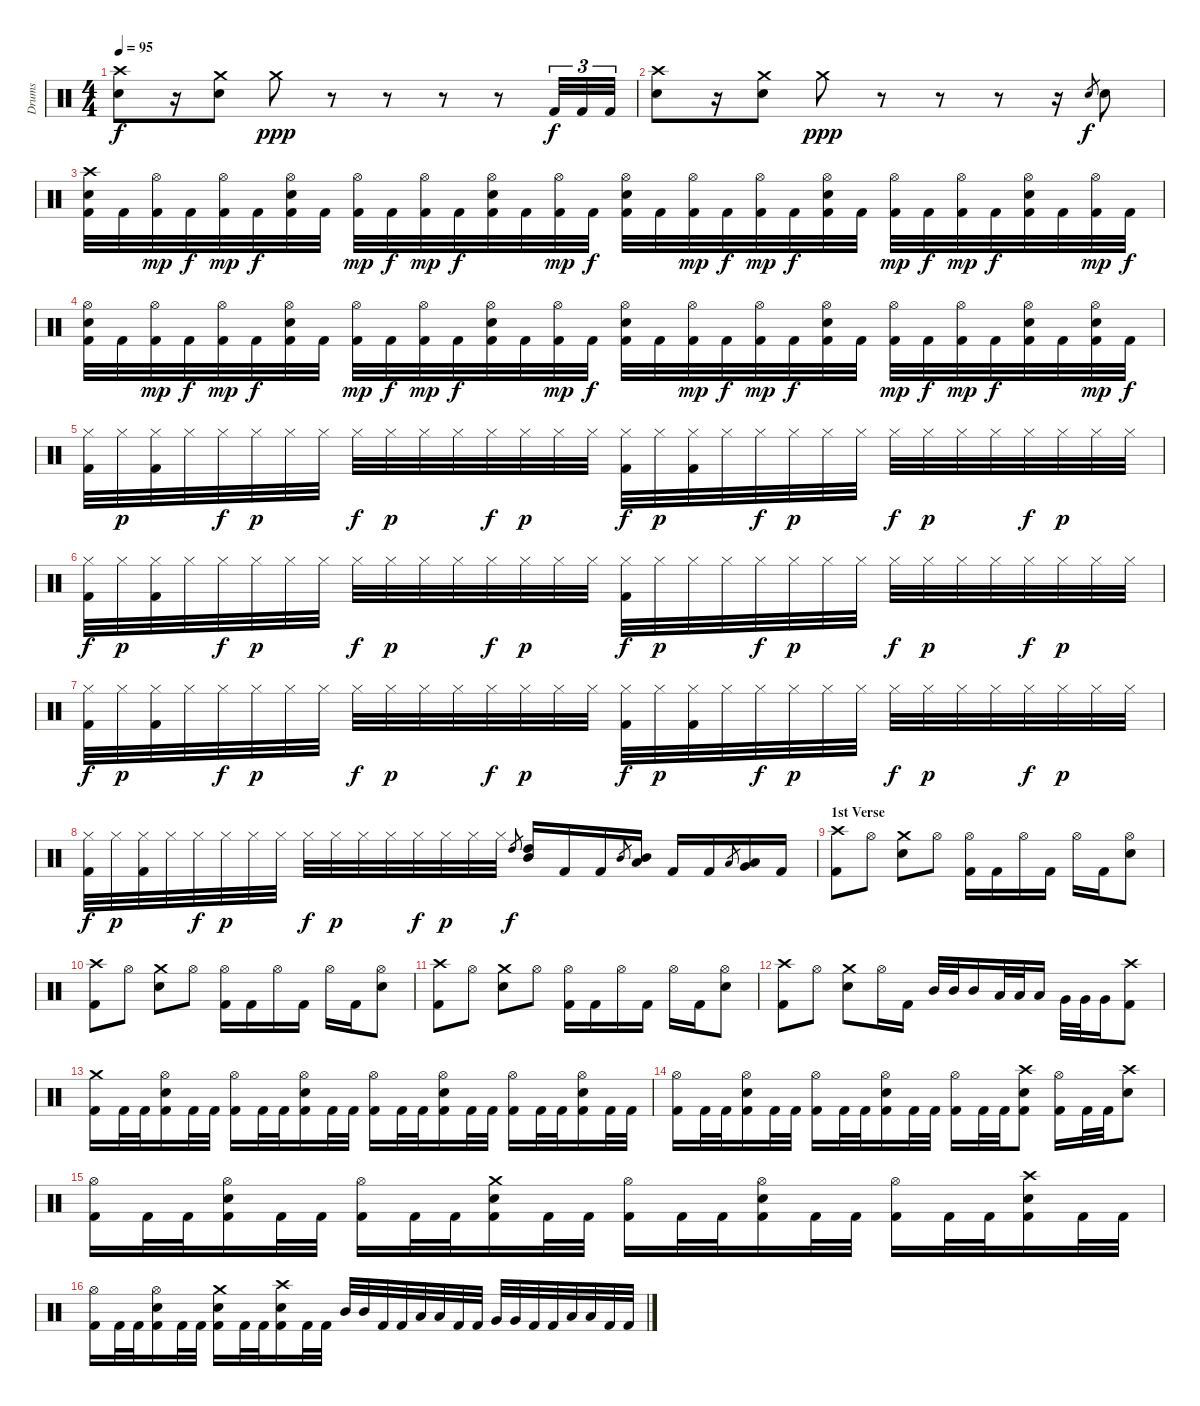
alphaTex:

\track ("Drums" "Drums") {instrument percussion}
\staff {score}
\articulation defaults
\ts (4 4)
\tempo 95
\clef neutral
\ks c
("Crash high (hit)" "Snare (hit) 2").8{dy f} r.16 ("Crash medium (hit)" "Snare (hit) 2").8 "Crash medium (hit)".8{dy ppp} r.8 r.8 r.8 r.8 "Kick (hit) 2".32{tu (3 2) dy f} "Kick (hit) 2".32{tu (3 2)} "Kick (hit) 2".32{tu (3 2)} |
("Crash high (hit)" "Snare (hit) 2").8 r.16 ("Crash medium (hit)" "Snare (hit) 2").8 "Crash medium (hit)".8{dy ppp} r.8 r.8 r.8 r.16 "Snare (hit) 2".8{gr dy f} "Snare (hit) 2".8 |
("Crash high (hit)" "Snare (hit) 2" "Kick (hit) 2").32 "Kick (hit) 2".32 ("Hi-Hat (open)" "Kick (hit) 2").32{dy mp} "Kick (hit) 2".32{dy f} ("Hi-Hat (open)" "Kick (hit) 2").32{dy mp} "Kick (hit) 2".32{dy f} ("Hi-Hat (open)" "Snare (hit) 2" "Kick (hit) 2").32 "Kick (hit) 2".32 ("Hi-Hat (open)" "Kick (hit) 2").32{dy mp} "Kick (hit) 2".32{dy f} ("Hi-Hat (open)" "Kick (hit) 2").32{dy mp} "Kick (hit) 2".32{dy f} ("Hi-Hat (open)" "Snare (hit) 2" "Kick (hit) 2").32 "Kick (hit) 2".32 ("Hi-Hat (open)" "Kick (hit) 2").32{dy mp} "Kick (hit) 2".32{dy f} ("Hi-Hat (open)" "Snare (hit) 2" "Kick (hit) 2").32 "Kick (hit) 2".32 ("Hi-Hat (open)" "Kick (hit) 2").32{dy mp} "Kick (hit) 2".32{dy f} ("Hi-Hat (open)" "Kick (hit) 2").32{dy mp} "Kick (hit) 2".32{dy f} ("Hi-Hat (open)" "Snare (hit) 2" "Kick (hit) 2").32 "Kick (hit) 2".32 ("Hi-Hat (open)" "Kick (hit) 2").32{dy mp} "Kick (hit) 2".32{dy f} ("Hi-Hat (open)" "Kick (hit) 2").32{dy mp} "Kick (hit) 2".32{dy f} ("Hi-Hat (open)" "Snare (hit) 2" "Kick (hit) 2").32 "Kick (hit) 2".32 ("Hi-Hat (open)" "Kick (hit) 2").32{dy mp} "Kick (hit) 2".32{dy f} |
("Hi-Hat (open)" "Snare (hit) 2" "Kick (hit) 2").32 "Kick (hit) 2".32 ("Hi-Hat (open)" "Kick (hit) 2").32{dy mp} "Kick (hit) 2".32{dy f} ("Hi-Hat (open)" "Kick (hit) 2").32{dy mp} "Kick (hit) 2".32{dy f} ("Hi-Hat (open)" "Snare (hit) 2" "Kick (hit) 2").32 "Kick (hit) 2".32 ("Hi-Hat (open)" "Kick (hit) 2").32{dy mp} "Kick (hit) 2".32{dy f} ("Hi-Hat (open)" "Kick (hit) 2").32{dy mp} "Kick (hit) 2".32{dy f} ("Hi-Hat (open)" "Snare (hit) 2" "Kick (hit) 2").32 "Kick (hit) 2".32 ("Hi-Hat (open)" "Kick (hit) 2").32{dy mp} "Kick (hit) 2".32{dy f} ("Hi-Hat (open)" "Snare (hit) 2" "Kick (hit) 2").32 "Kick (hit) 2".32 ("Hi-Hat (open)" "Kick (hit) 2").32{dy mp} "Kick (hit) 2".32{dy f} ("Hi-Hat (open)" "Kick (hit) 2").32{dy mp} "Kick (hit) 2".32{dy f} ("Hi-Hat (open)" "Snare (hit) 2" "Kick (hit) 2").32 "Kick (hit) 2".32 ("Hi-Hat (open)" "Kick (hit) 2").32{dy mp} "Kick (hit) 2".32{dy f} ("Hi-Hat (open)" "Kick (hit) 2").32{dy mp} "Kick (hit) 2".32{dy f} ("Hi-Hat (open)" "Snare (hit) 2" "Kick (hit) 2").32 "Kick (hit) 2".32 ("Hi-Hat (open)" "Snare (hit) 2" "Kick (hit) 2").32{dy mp} "Kick (hit) 2".32{dy f} |
("Hi-Hat (closed)" "Kick (hit) 2").32 "Hi-Hat (closed)".32{dy p} ("Hi-Hat (closed)" "Kick (hit) 2").32 "Hi-Hat (closed)".32 "Hi-Hat (closed)".32{dy f} "Hi-Hat (closed)".32{dy p} "Hi-Hat (closed)".32 "Hi-Hat (closed)".32 "Hi-Hat (closed)".32{dy f} "Hi-Hat (closed)".32{dy p} "Hi-Hat (closed)".32 "Hi-Hat (closed)".32 "Hi-Hat (closed)".32{dy f} "Hi-Hat (closed)".32{dy p} "Hi-Hat (closed)".32 "Hi-Hat (closed)".32 ("Hi-Hat (closed)" "Kick (hit) 2").32{dy f} "Hi-Hat (closed)".32{dy p} ("Hi-Hat (closed)" "Kick (hit) 2").32 "Hi-Hat (closed)".32 "Hi-Hat (closed)".32{dy f} "Hi-Hat (closed)".32{dy p} "Hi-Hat (closed)".32 "Hi-Hat (closed)".32 "Hi-Hat (closed)".32{dy f} "Hi-Hat (closed)".32{dy p} "Hi-Hat (closed)".32 "Hi-Hat (closed)".32 "Hi-Hat (closed)".32{dy f} "Hi-Hat (closed)".32{dy p} "Hi-Hat (closed)".32 "Hi-Hat (closed)".32 |
("Hi-Hat (closed)" "Kick (hit) 2").32{dy f} "Hi-Hat (closed)".32{dy p} ("Hi-Hat (closed)" "Kick (hit) 2").32 "Hi-Hat (closed)".32 "Hi-Hat (closed)".32{dy f} "Hi-Hat (closed)".32{dy p} "Hi-Hat (closed)".32 "Hi-Hat (closed)".32 "Hi-Hat (closed)".32{dy f} "Hi-Hat (closed)".32{dy p} "Hi-Hat (closed)".32 "Hi-Hat (closed)".32 "Hi-Hat (closed)".32{dy f} "Hi-Hat (closed)".32{dy p} "Hi-Hat (closed)".32 "Hi-Hat (closed)".32 ("Hi-Hat (closed)" "Kick (hit) 2").32{dy f} "Hi-Hat (closed)".32{dy p} "Hi-Hat (closed)".32 "Hi-Hat (closed)".32 "Hi-Hat (closed)".32{dy f} "Hi-Hat (closed)".32{dy p} "Hi-Hat (closed)".32 "Hi-Hat (closed)".32 "Hi-Hat (closed)".32{dy f} "Hi-Hat (closed)".32{dy p} "Hi-Hat (closed)".32 "Hi-Hat (closed)".32 "Hi-Hat (closed)".32{dy f} "Hi-Hat (closed)".32{dy p} "Hi-Hat (closed)".32 "Hi-Hat (closed)".32 |
("Hi-Hat (closed)" "Kick (hit) 2").32{dy f} "Hi-Hat (closed)".32{dy p} ("Hi-Hat (closed)" "Kick (hit) 2").32 "Hi-Hat (closed)".32 "Hi-Hat (closed)".32{dy f} "Hi-Hat (closed)".32{dy p} "Hi-Hat (closed)".32 "Hi-Hat (closed)".32 "Hi-Hat (closed)".32{dy f} "Hi-Hat (closed)".32{dy p} "Hi-Hat (closed)".32 "Hi-Hat (closed)".32 "Hi-Hat (closed)".32{dy f} "Hi-Hat (closed)".32{dy p} "Hi-Hat (closed)".32 "Hi-Hat (closed)".32 ("Hi-Hat (closed)" "Kick (hit) 2").32{dy f} "Hi-Hat (closed)".32{dy p} ("Hi-Hat (closed)" "Kick (hit) 2").32 "Hi-Hat (closed)".32 "Hi-Hat (closed)".32{dy f} "Hi-Hat (closed)".32{dy p} "Hi-Hat (closed)".32 "Hi-Hat (closed)".32 "Hi-Hat (closed)".32{dy f} "Hi-Hat (closed)".32{dy p} "Hi-Hat (closed)".32 "Hi-Hat (closed)".32 "Hi-Hat (closed)".32{dy f} "Hi-Hat (closed)".32{dy p} "Hi-Hat (closed)".32 "Hi-Hat (closed)".32 |
("Hi-Hat (closed)" "Kick (hit) 2").32{dy f} "Hi-Hat (closed)".32{dy p} ("Hi-Hat (closed)" "Kick (hit) 2").32 "Hi-Hat (closed)".32 "Hi-Hat (closed)".32{dy f} "Hi-Hat (closed)".32{dy p} "Hi-Hat (closed)".32 "Hi-Hat (closed)".32 "Hi-Hat (closed)".32{dy f} "Hi-Hat (closed)".32{dy p} "Hi-Hat (closed)".32 "Hi-Hat (closed)".32 "Hi-Hat (closed)".32{dy f} "Hi-Hat (closed)".32{dy p} "Hi-Hat (closed)".32 "Hi-Hat (closed)".32 "High Tom (hit)".8{gr dy f} ("High Tom (hit)" "Mid Tom (hit)").16 "Kick (hit) 2".16 "Kick (hit) 2".16 "Mid Tom (hit)".8{gr} ("Mid Tom (hit)" "Low Tom (hit)").16 "Kick (hit) 2".16 "Kick (hit) 2".16 "Low Tom (hit)".8{gr} ("Low Tom (hit)" "Very Low Tom (hit)").16 "Kick (hit) 2".16 |
\section ("" "1st Verse")
("Crash high (hit)" "Kick (hit) 2").8 "Hi-Hat (open)".8 ("Crash medium (hit)" "Snare (hit) 2").8 "Hi-Hat (open)".8 ("Hi-Hat (open)" "Kick (hit) 2").16 "Kick (hit) 2".16 "Hi-Hat (open)".16 "Kick (hit) 2".16 "Hi-Hat (open)".16 "Kick (hit) 2".16 ("Hi-Hat (open)" "Snare (hit) 2").8 |
("Crash high (hit)" "Kick (hit) 2").8 "Hi-Hat (open)".8 ("Crash medium (hit)" "Snare (hit) 2").8 "Hi-Hat (open)".8 ("Hi-Hat (open)" "Kick (hit) 2").16 "Kick (hit) 2".16 "Hi-Hat (open)".16 "Kick (hit) 2".16 "Hi-Hat (open)".16 "Kick (hit) 2".16 ("Hi-Hat (open)" "Snare (hit) 2").8 |
("Crash high (hit)" "Kick (hit) 2").8 "Hi-Hat (open)".8 ("Crash medium (hit)" "Snare (hit) 2").8 "Hi-Hat (open)".8 ("Hi-Hat (open)" "Kick (hit) 2").16 "Kick (hit) 2".16 "Hi-Hat (open)".16 "Kick (hit) 2".16 "Hi-Hat (open)".16 "Kick (hit) 2".16 ("Hi-Hat (open)" "Snare (hit) 2").8 |
("Crash high (hit)" "Kick (hit) 2").8 "Hi-Hat (open)".8 ("Crash medium (hit)" "Snare (hit) 2").8 "Hi-Hat (open)".16 "Kick (hit) 2".16 "Mid Tom (hit)".32 "Mid Tom (hit)".32 "Mid Tom (hit)".16 "Low Tom (hit)".32 "Low Tom (hit)".32 "Low Tom (hit)".16 "Very Low Tom (hit)".32 "Very Low Tom (hit)".32 "Very Low Tom (hit)".16 ("Crash high (hit)" "Kick (hit) 2").8 |
("Crash medium (hit)" "Kick (hit) 2").16 "Kick (hit) 2".32 "Kick (hit) 2".32 ("Hi-Hat (open)" "Snare (hit) 2" "Kick (hit) 2").16 "Kick (hit) 2".32 "Kick (hit) 2".32 ("Hi-Hat (open)" "Kick (hit) 2").16 "Kick (hit) 2".32 "Kick (hit) 2".32 ("Hi-Hat (open)" "Snare (hit) 2" "Kick (hit) 2").16 "Kick (hit) 2".32 "Kick (hit) 2".32 ("Hi-Hat (open)" "Kick (hit) 2").16 "Kick (hit) 2".32 "Kick (hit) 2".32 ("Hi-Hat (open)" "Snare (hit) 2" "Kick (hit) 2").16 "Kick (hit) 2".32 "Kick (hit) 2".32 ("Hi-Hat (open)" "Kick (hit) 2").16 "Kick (hit) 2".32 "Kick (hit) 2".32 ("Hi-Hat (open)" "Snare (hit) 2" "Kick (hit) 2").16 "Kick (hit) 2".32 "Kick (hit) 2".32 |
("Hi-Hat (open)" "Kick (hit) 2").16 "Kick (hit) 2".32 "Kick (hit) 2".32 ("Hi-Hat (open)" "Snare (hit) 2" "Kick (hit) 2").16 "Kick (hit) 2".32 "Kick (hit) 2".32 ("Hi-Hat (open)" "Kick (hit) 2").16 "Kick (hit) 2".32 "Kick (hit) 2".32 ("Hi-Hat (open)" "Snare (hit) 2" "Kick (hit) 2").16 "Kick (hit) 2".32 "Kick (hit) 2".32 ("Hi-Hat (open)" "Kick (hit) 2").16 "Kick (hit) 2".32 "Kick (hit) 2".32 ("Crash high (hit)" "Snare (hit) 2" "Kick (hit) 2").8 ("Hi-Hat (open)" "Kick (hit) 2").16 "Kick (hit) 2".32 "Kick (hit) 2".32 ("Crash high (hit)" "Snare (hit) 2").8 |
("Hi-Hat (open)" "Kick (hit) 2").16 "Kick (hit) 2".32 "Kick (hit) 2".32 ("Hi-Hat (open)" "Snare (hit) 2" "Kick (hit) 2").16 "Kick (hit) 2".32 "Kick (hit) 2".32 ("Hi-Hat (open)" "Kick (hit) 2").16 "Kick (hit) 2".32 "Kick (hit) 2".32 ("Crash medium (hit)" "Snare (hit) 2" "Kick (hit) 2").16 "Kick (hit) 2".32 "Kick (hit) 2".32 ("Hi-Hat (open)" "Kick (hit) 2").16 "Kick (hit) 2".32 "Kick (hit) 2".32 ("Hi-Hat (open)" "Snare (hit) 2" "Kick (hit) 2").16 "Kick (hit) 2".32 "Kick (hit) 2".32 ("Hi-Hat (open)" "Kick (hit) 2").16 "Kick (hit) 2".32 "Kick (hit) 2".32 ("Crash high (hit)" "Snare (hit) 2" "Kick (hit) 2").16 "Kick (hit) 2".32 "Kick (hit) 2".32 |
("Hi-Hat (open)" "Kick (hit) 2").16 "Kick (hit) 2".32 "Kick (hit) 2".32 ("Hi-Hat (open)" "Snare (hit) 2" "Kick (hit) 2").16 "Kick (hit) 2".32 "Kick (hit) 2".32 ("Crash medium (hit)" "Snare (hit) 2" "Kick (hit) 2").16 "Kick (hit) 2".32 "Kick (hit) 2".32 ("Crash high (hit)" "Snare (hit) 2" "Kick (hit) 2").16 "Kick (hit) 2".32 "Kick (hit) 2".32 "Mid Tom (hit)".32 "Mid Tom (hit)".32 "Kick (hit) 2".32 "Kick (hit) 2".32 "Low Tom (hit)".32 "Low Tom (hit)".32 "Kick (hit) 2".32 "Kick (hit) 2".32 "Very Low Tom (hit)".32 "Very Low Tom (hit)".32 "Kick (hit) 2".32 "Kick (hit) 2".32 "Low Floor Tom (hit)".32 "Low Floor Tom (hit)".32 "Kick (hit) 2".32 "Kick (hit) 2".32
